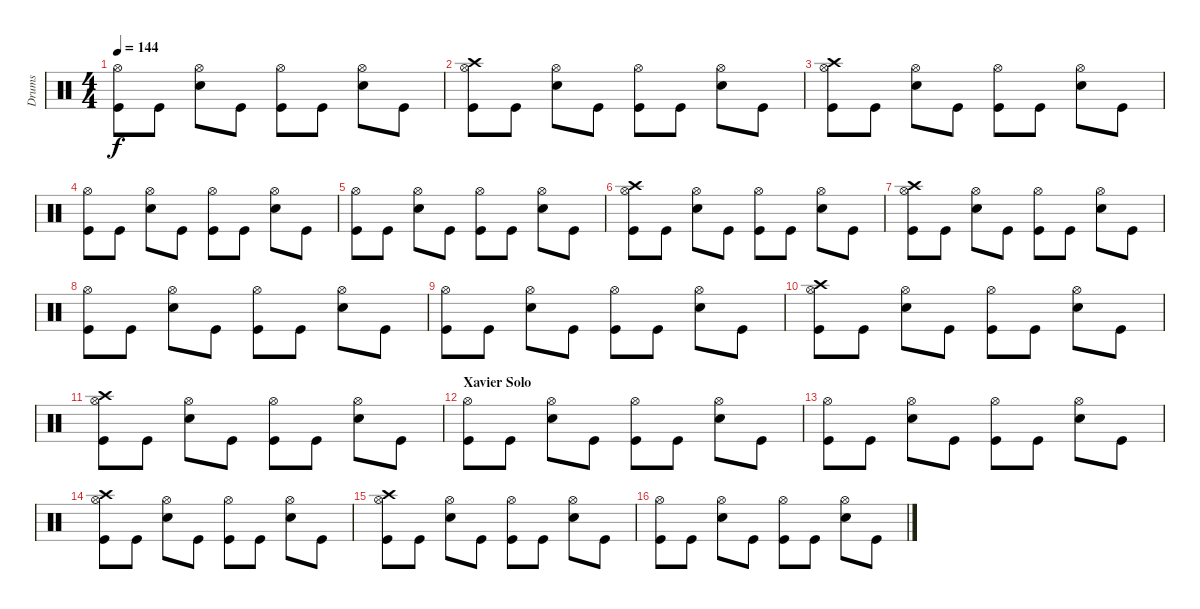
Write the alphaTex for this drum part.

\track ("Drums" "Drums") {instrument percussion}
\staff {score}
\articulation defaults
\ts (4 4)
\tempo 144
\clef neutral
\ks c
("Hi-Hat (open)" "Kick (hit)").8{dy f} "Kick (hit)".8 ("Hi-Hat (open)" "Snare (hit) 2").8 "Kick (hit)".8 ("Hi-Hat (open)" "Kick (hit)").8 "Kick (hit)".8 ("Hi-Hat (open)" "Snare (hit) 2").8 "Kick (hit)".8 |
("Hi-Hat (open)" "Crash high (hit)" "Kick (hit)").8 "Kick (hit)".8 ("Hi-Hat (open)" "Snare (hit) 2").8 "Kick (hit)".8 ("Hi-Hat (open)" "Kick (hit)").8 "Kick (hit)".8 ("Hi-Hat (open)" "Snare (hit) 2").8 "Kick (hit)".8 |
("Hi-Hat (open)" "Crash high (hit)" "Kick (hit)").8 "Kick (hit)".8 ("Hi-Hat (open)" "Snare (hit) 2").8 "Kick (hit)".8 ("Hi-Hat (open)" "Kick (hit)").8 "Kick (hit)".8 ("Hi-Hat (open)" "Snare (hit) 2").8 "Kick (hit)".8 |
("Hi-Hat (open)" "Kick (hit)").8 "Kick (hit)".8 ("Hi-Hat (open)" "Snare (hit) 2").8 "Kick (hit)".8 ("Hi-Hat (open)" "Kick (hit)").8 "Kick (hit)".8 ("Hi-Hat (open)" "Snare (hit) 2").8 "Kick (hit)".8 |
("Hi-Hat (open)" "Kick (hit)").8 "Kick (hit)".8 ("Hi-Hat (open)" "Snare (hit) 2").8 "Kick (hit)".8 ("Hi-Hat (open)" "Kick (hit)").8 "Kick (hit)".8 ("Hi-Hat (open)" "Snare (hit) 2").8 "Kick (hit)".8 |
("Hi-Hat (open)" "Crash high (hit)" "Kick (hit)").8 "Kick (hit)".8 ("Hi-Hat (open)" "Snare (hit) 2").8 "Kick (hit)".8 ("Hi-Hat (open)" "Kick (hit)").8 "Kick (hit)".8 ("Hi-Hat (open)" "Snare (hit) 2").8 "Kick (hit)".8 |
("Hi-Hat (open)" "Crash high (hit)" "Kick (hit)").8 "Kick (hit)".8 ("Hi-Hat (open)" "Snare (hit) 2").8 "Kick (hit)".8 ("Hi-Hat (open)" "Kick (hit)").8 "Kick (hit)".8 ("Hi-Hat (open)" "Snare (hit) 2").8 "Kick (hit)".8 |
("Hi-Hat (open)" "Kick (hit)").8 "Kick (hit)".8 ("Hi-Hat (open)" "Snare (hit) 2").8 "Kick (hit)".8 ("Hi-Hat (open)" "Kick (hit)").8 "Kick (hit)".8 ("Hi-Hat (open)" "Snare (hit) 2").8 "Kick (hit)".8 |
("Hi-Hat (open)" "Kick (hit)").8 "Kick (hit)".8 ("Hi-Hat (open)" "Snare (hit) 2").8 "Kick (hit)".8 ("Hi-Hat (open)" "Kick (hit)").8 "Kick (hit)".8 ("Hi-Hat (open)" "Snare (hit) 2").8 "Kick (hit)".8 |
("Hi-Hat (open)" "Crash high (hit)" "Kick (hit)").8 "Kick (hit)".8 ("Hi-Hat (open)" "Snare (hit) 2").8 "Kick (hit)".8 ("Hi-Hat (open)" "Kick (hit)").8 "Kick (hit)".8 ("Hi-Hat (open)" "Snare (hit) 2").8 "Kick (hit)".8 |
("Hi-Hat (open)" "Crash high (hit)" "Kick (hit)").8 "Kick (hit)".8 ("Hi-Hat (open)" "Snare (hit) 2").8 "Kick (hit)".8 ("Hi-Hat (open)" "Kick (hit)").8 "Kick (hit)".8 ("Hi-Hat (open)" "Snare (hit) 2").8 "Kick (hit)".8 |
\section ("" "Xavier Solo")
("Hi-Hat (open)" "Kick (hit)").8 "Kick (hit)".8 ("Hi-Hat (open)" "Snare (hit) 2").8 "Kick (hit)".8 ("Hi-Hat (open)" "Kick (hit)").8 "Kick (hit)".8 ("Hi-Hat (open)" "Snare (hit) 2").8 "Kick (hit)".8 |
("Hi-Hat (open)" "Kick (hit)").8 "Kick (hit)".8 ("Hi-Hat (open)" "Snare (hit) 2").8 "Kick (hit)".8 ("Hi-Hat (open)" "Kick (hit)").8 "Kick (hit)".8 ("Hi-Hat (open)" "Snare (hit) 2").8 "Kick (hit)".8 |
("Hi-Hat (open)" "Crash high (hit)" "Kick (hit)").8 "Kick (hit)".8 ("Hi-Hat (open)" "Snare (hit) 2").8 "Kick (hit)".8 ("Hi-Hat (open)" "Kick (hit)").8 "Kick (hit)".8 ("Hi-Hat (open)" "Snare (hit) 2").8 "Kick (hit)".8 |
("Hi-Hat (open)" "Crash high (hit)" "Kick (hit)").8 "Kick (hit)".8 ("Hi-Hat (open)" "Snare (hit) 2").8 "Kick (hit)".8 ("Hi-Hat (open)" "Kick (hit)").8 "Kick (hit)".8 ("Hi-Hat (open)" "Snare (hit) 2").8 "Kick (hit)".8 |
("Hi-Hat (open)" "Kick (hit)").8 "Kick (hit)".8 ("Hi-Hat (open)" "Snare (hit) 2").8 "Kick (hit)".8 ("Hi-Hat (open)" "Kick (hit)").8 "Kick (hit)".8 ("Hi-Hat (open)" "Snare (hit) 2").8 "Kick (hit)".8
